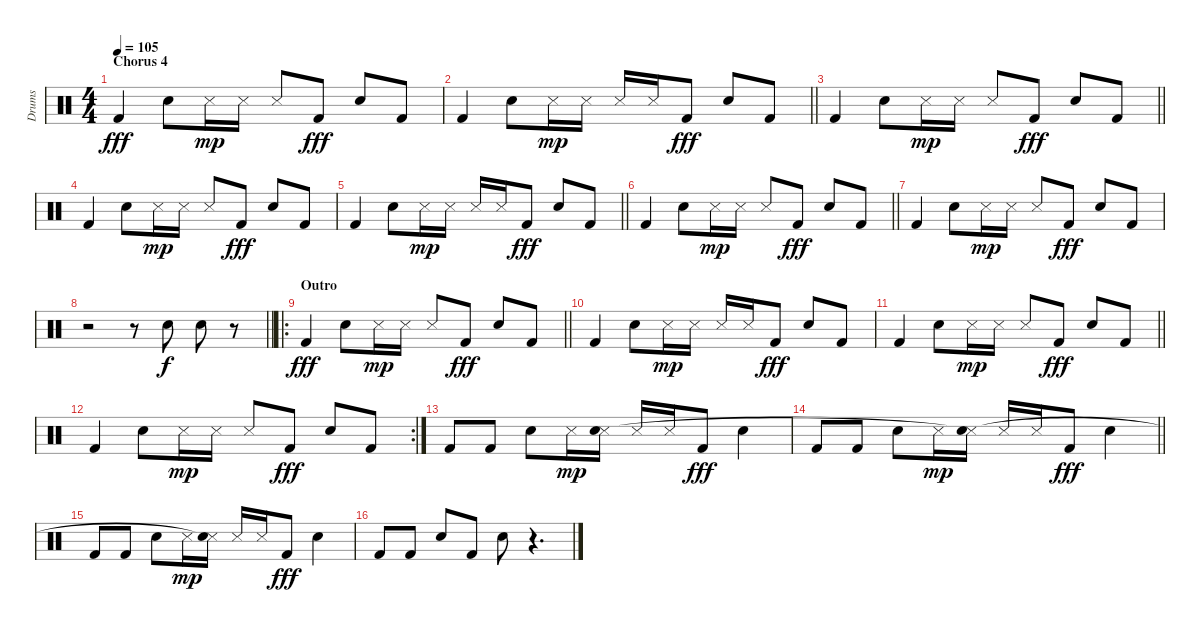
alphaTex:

\track ("Drums" "Drums") {instrument percussion}
\staff {score}
\articulation defaults
\ts (4 4)
\section ("" "Chorus 4")
\tempo 105
\clef neutral
\ks aminor "Kick (hit) 2".4{dy fff} "Electric Snare (hit)".8 "Snare (side stick) 3".16{dy mp} "Metronome (hit)".16 "Snare (side stick) 3".8 "Kick (hit) 2".8{dy fff} "Electric Snare (hit)".8 "Kick (hit) 2".8
|
\barLineRight lightlight "Kick (hit) 2".4 "Electric Snare (hit)".8 "Snare (side stick) 3".16{dy mp} "Metronome (hit)".16 "Snare (side stick) 3".16 "Metronome (hit)".16 "Kick (hit) 2".8{dy fff} "Electric Snare (hit)".8 "Kick (hit) 2".8
|
\barLineRight lightlight "Kick (hit) 2".4 "Electric Snare (hit)".8 "Snare (side stick) 3".16{dy mp} "Metronome (hit)".16 "Snare (side stick) 3".8 "Kick (hit) 2".8{dy fff} "Electric Snare (hit)".8 "Kick (hit) 2".8
|
"Kick (hit) 2".4 "Electric Snare (hit)".8 "Snare (side stick) 3".16{dy mp} "Metronome (hit)".16 "Snare (side stick) 3".8 "Kick (hit) 2".8{dy fff} "Electric Snare (hit)".8 "Kick (hit) 2".8 |
\barLineRight lightlight "Kick (hit) 2".4 "Electric Snare (hit)".8 "Snare (side stick) 3".16{dy mp} "Metronome (hit)".16 "Snare (side stick) 3".16 "Metronome (hit)".16 "Kick (hit) 2".8{dy fff} "Electric Snare (hit)".8 "Kick (hit) 2".8
|
\barLineRight lightlight "Kick (hit) 2".4 "Electric Snare (hit)".8 "Snare (side stick) 3".16{dy mp} "Metronome (hit)".16 "Snare (side stick) 3".8 "Kick (hit) 2".8{dy fff} "Electric Snare (hit)".8 "Kick (hit) 2".8
|
"Kick (hit) 2".4 "Electric Snare (hit)".8 "Snare (side stick) 3".16{dy mp} "Metronome (hit)".16 "Snare (side stick) 3".8 "Kick (hit) 2".8{dy fff} "Electric Snare (hit)".8 "Kick (hit) 2".8 |
\barLineRight lightlight
r.2 r.8 "Electric Snare (hit)".8{dy f} "Electric Snare (hit)".8 r.8 |
\ro
\section ("" "Outro")
\barLineRight lightlight "Kick (hit) 2".4{dy fff} "Electric Snare (hit)".8 "Snare (side stick) 3".16{dy mp} "Metronome (hit)".16 "Snare (side stick) 3".8 "Kick (hit) 2".8{dy fff} "Electric Snare (hit)".8 "Kick (hit) 2".8
|
"Kick (hit) 2".4 "Electric Snare (hit)".8 "Snare (side stick) 3".16{dy mp} "Metronome (hit)".16 "Snare (side stick) 3".16 "Metronome (hit)".16 "Kick (hit) 2".8{dy fff} "Electric Snare (hit)".8 "Kick (hit) 2".8 |
\barLineRight lightlight "Kick (hit) 2".4 "Electric Snare (hit)".8 "Snare (side stick) 3".16{dy mp} "Metronome (hit)".16 "Snare (side stick) 3".8 "Kick (hit) 2".8{dy fff} "Electric Snare (hit)".8 "Kick (hit) 2".8
|
\rc 2 "Kick (hit) 2".4 "Electric Snare (hit)".8 "Snare (side stick) 3".16{dy mp} "Metronome (hit)".16 "Snare (side stick) 3".8 "Kick (hit) 2".8{dy fff} "Electric Snare (hit)".8 "Kick (hit) 2".8
|
"Kick (hit) 2".8 "Kick (hit) 2".8 "Electric Snare (hit)".8 "Snare (side stick) 3".16{dy mp} ("Metronome (hit)" "Snare (hit)").16 "Snare (side stick) 3".16 "Metronome (hit)".16 "Kick (hit) 2".8{dy fff} "Electric Snare (hit)".4 |
\barLineRight lightlight "Kick (hit) 2".8 "Kick (hit) 2".8 "Electric Snare (hit)".8 "Snare (side stick) 3".16{dy mp}
("Metronome (hit)" "Snare (hit)"{t}).16 "Snare (side stick) 3".16 "Metronome (hit)".16 "Kick (hit) 2".8{dy fff} "Electric Snare (hit)".4 |
"Kick (hit) 2".8 "Kick (hit) 2".8 "Electric Snare (hit)".8 "Snare (side stick) 3".16{dy mp} ("Metronome (hit)" "Snare (hit)"{t}).16 "Snare (side stick) 3".16 "Metronome (hit)".16 "Kick (hit) 2".8{dy fff} "Electric Snare (hit)".4 |
"Kick (hit) 2".8 "Kick (hit) 2".8 "Electric Snare (hit)".8 "Kick (hit) 2".8 "Electric Snare (hit)".8 r.4{d}
